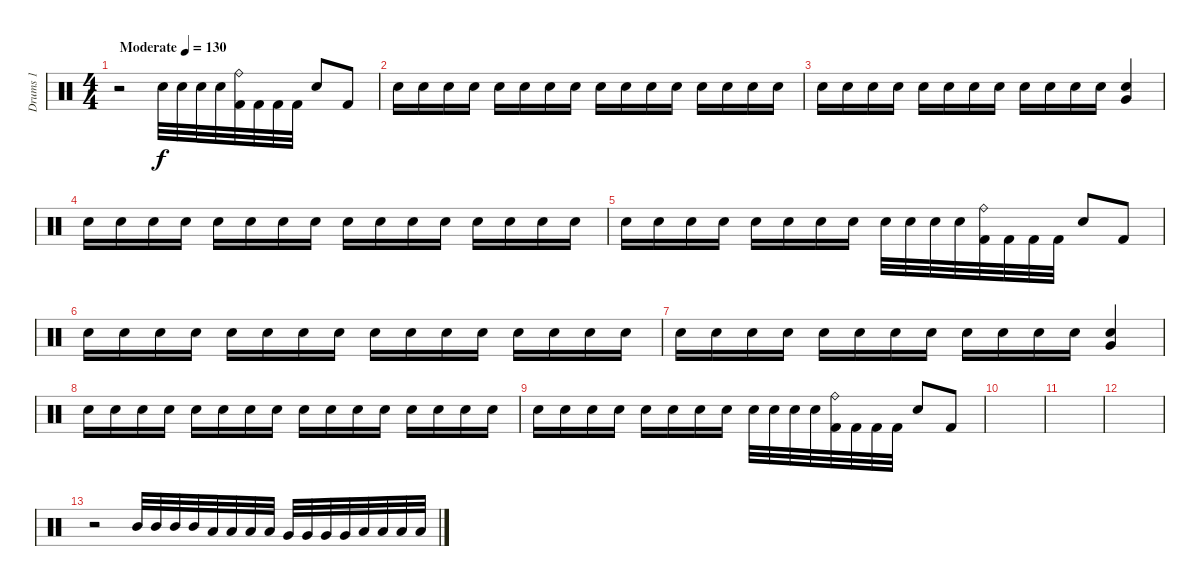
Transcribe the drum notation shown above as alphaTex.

\track ("Drums 1" "Drums 1") {instrument percussion}
\staff {score}
\articulation defaults
\ts (4 4)
\tempo (130 "Moderate")
\clef neutral
\ks c
r.2{dy f} "Snare (hit) 2".32 "Snare (hit) 2".32 "Snare (hit) 2".32 "Snare (hit) 2".32 ("Ride (bell)" "Kick (hit) 2").32 "Kick (hit) 2".32 "Kick (hit) 2".32 "Kick (hit) 2".32 "Snare (hit) 2".8 "Kick (hit) 2".8 |
"Snare (hit) 2".16 "Snare (hit) 2".16 "Snare (hit) 2".16 "Snare (hit) 2".16 "Snare (hit) 2".16 "Snare (hit) 2".16 "Snare (hit) 2".16 "Snare (hit) 2".16 "Snare (hit) 2".16 "Snare (hit) 2".16 "Snare (hit) 2".16 "Snare (hit) 2".16 "Snare (hit) 2".16 "Snare (hit) 2".16 "Snare (hit) 2".16 "Snare (hit) 2".16 |
"Snare (hit) 2".16 "Snare (hit) 2".16 "Snare (hit) 2".16 "Snare (hit) 2".16 "Snare (hit) 2".16 "Snare (hit) 2".16 "Snare (hit) 2".16 "Snare (hit) 2".16 "Snare (hit) 2".16 "Snare (hit) 2".16 "Snare (hit) 2".16 "Snare (hit) 2".16 ("Very Low Tom (hit)" "Snare (hit) 2").4 |
"Snare (hit) 2".16 "Snare (hit) 2".16 "Snare (hit) 2".16 "Snare (hit) 2".16 "Snare (hit) 2".16 "Snare (hit) 2".16 "Snare (hit) 2".16 "Snare (hit) 2".16 "Snare (hit) 2".16 "Snare (hit) 2".16 "Snare (hit) 2".16 "Snare (hit) 2".16 "Snare (hit) 2".16 "Snare (hit) 2".16 "Snare (hit) 2".16 "Snare (hit) 2".16 |
"Snare (hit) 2".16 "Snare (hit) 2".16 "Snare (hit) 2".16 "Snare (hit) 2".16 "Snare (hit) 2".16 "Snare (hit) 2".16 "Snare (hit) 2".16 "Snare (hit) 2".16 "Snare (hit) 2".32 "Snare (hit) 2".32 "Snare (hit) 2".32 "Snare (hit) 2".32 ("Ride (bell)" "Kick (hit) 2").32 "Kick (hit) 2".32 "Kick (hit) 2".32 "Kick (hit) 2".32 "Snare (hit) 2".8 "Kick (hit) 2".8 |
"Snare (hit) 2".16 "Snare (hit) 2".16 "Snare (hit) 2".16 "Snare (hit) 2".16 "Snare (hit) 2".16 "Snare (hit) 2".16 "Snare (hit) 2".16 "Snare (hit) 2".16 "Snare (hit) 2".16 "Snare (hit) 2".16 "Snare (hit) 2".16 "Snare (hit) 2".16 "Snare (hit) 2".16 "Snare (hit) 2".16 "Snare (hit) 2".16 "Snare (hit) 2".16 |
"Snare (hit) 2".16 "Snare (hit) 2".16 "Snare (hit) 2".16 "Snare (hit) 2".16 "Snare (hit) 2".16 "Snare (hit) 2".16 "Snare (hit) 2".16 "Snare (hit) 2".16 "Snare (hit) 2".16 "Snare (hit) 2".16 "Snare (hit) 2".16 "Snare (hit) 2".16 ("Very Low Tom (hit)" "Snare (hit) 2").4 |
"Snare (hit) 2".16 "Snare (hit) 2".16 "Snare (hit) 2".16 "Snare (hit) 2".16 "Snare (hit) 2".16 "Snare (hit) 2".16 "Snare (hit) 2".16 "Snare (hit) 2".16 "Snare (hit) 2".16 "Snare (hit) 2".16 "Snare (hit) 2".16 "Snare (hit) 2".16 "Snare (hit) 2".16 "Snare (hit) 2".16 "Snare (hit) 2".16 "Snare (hit) 2".16 |
"Snare (hit) 2".16 "Snare (hit) 2".16 "Snare (hit) 2".16 "Snare (hit) 2".16 "Snare (hit) 2".16 "Snare (hit) 2".16 "Snare (hit) 2".16 "Snare (hit) 2".16 "Snare (hit) 2".32 "Snare (hit) 2".32 "Snare (hit) 2".32 "Snare (hit) 2".32 ("Ride (bell)" "Kick (hit) 2").32 "Kick (hit) 2".32 "Kick (hit) 2".32 "Kick (hit) 2".32 "Snare (hit) 2".8 "Kick (hit) 2".8 |
|
|
|
r.2 "Mid Tom (hit)".32 "Mid Tom (hit)".32 "Mid Tom (hit)".32 "Mid Tom (hit)".32 "Low Tom (hit)".32 "Low Tom (hit)".32 "Low Tom (hit)".32 "Low Tom (hit)".32 "Very Low Tom (hit)".32 "Very Low Tom (hit)".32 "Very Low Tom (hit)".32 "Very Low Tom (hit)".32 "Low Floor Tom (hit)".32 "Low Floor Tom (hit)".32 "Low Floor Tom (hit)".32 "Low Floor Tom (hit)".32
